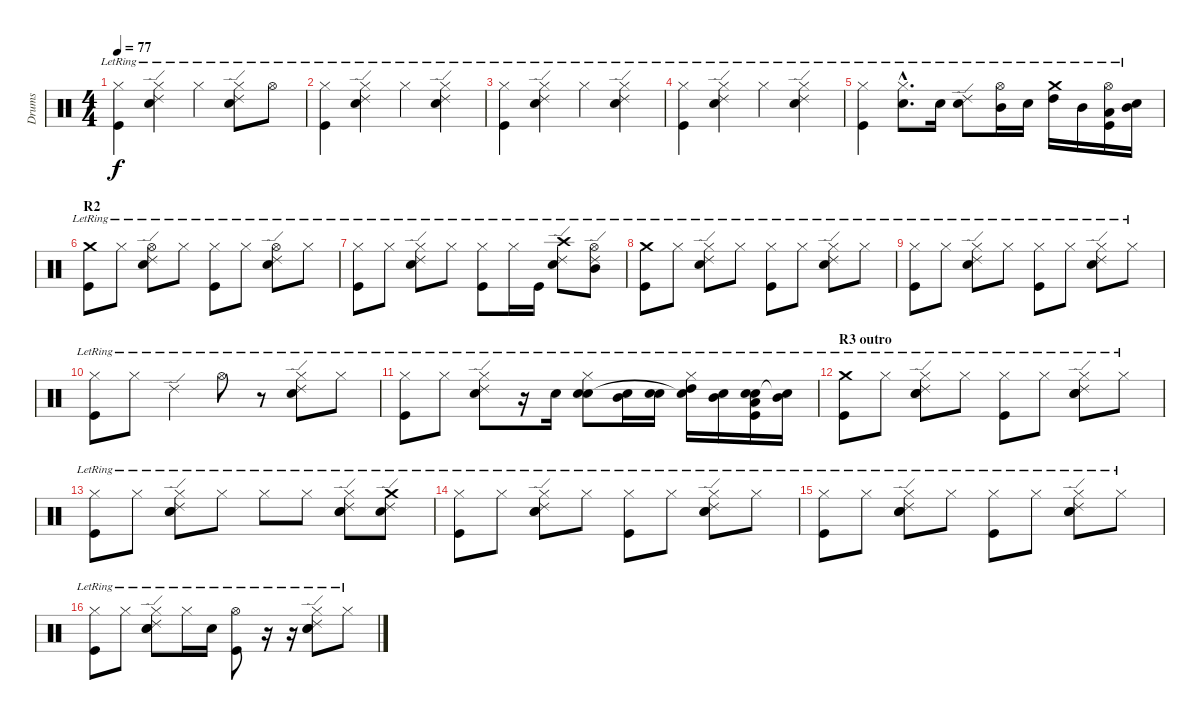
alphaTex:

\track ("Drums" "Drums") {instrument percussion}
\staff {score}
\articulation defaults
\ts (4 4)
\tempo 77
\clef neutral
\ks c
("Hi-Hat (closed)"{lr} "Kick (hit)"{lr}).4{dy f} ("Hi-Hat (closed)"{lr} "Snare (hit) 2"{lr} "Ride (edge) 2"{lr}).4 "Hi-Hat (closed)"{lr}.4 ("Hi-Hat (closed)"{lr} "Snare (hit) 2"{lr} "Ride (edge) 2"{lr}).8 "Hi-Hat (open)"{lr}.8 |
("Hi-Hat (closed)"{lr} "Kick (hit)"{lr}).4 ("Hi-Hat (closed)"{lr} "Snare (hit) 2"{lr} "Ride (edge) 2"{lr}).4 "Hi-Hat (closed)"{lr}.4 ("Hi-Hat (closed)"{lr} "Snare (hit) 2"{lr} "Ride (edge) 2"{lr}).4 |
("Hi-Hat (closed)"{lr} "Kick (hit)"{lr}).4 ("Hi-Hat (closed)"{lr} "Snare (hit) 2"{lr} "Ride (edge) 2"{lr}).4 "Hi-Hat (closed)"{lr}.4 ("Hi-Hat (closed)"{lr} "Snare (hit) 2"{lr} "Ride (edge) 2"{lr}).4 |
("Hi-Hat (closed)"{lr} "Kick (hit)"{lr}).4 ("Hi-Hat (closed)"{lr} "Snare (hit) 2"{lr} "Ride (edge) 2"{lr}).4 "Hi-Hat (closed)"{lr}.4 ("Hi-Hat (closed)"{lr} "Snare (hit) 2"{lr} "Ride (edge) 2"{lr}).4 |
("Hi-Hat (closed)"{lr} "Kick (hit)"{lr}).4 ("Hi-Hat (closed)"{hac lr} "Snare (hit) 2"{hac lr}).8{d} "Snare (hit) 2"{lr}.16 ("Ride (edge) 2"{lr} "Snare (hit) 2"{lr}).8 ("Hi-Hat (open)"{lr} "Mid Tom (hit)"{lr}).16 "Snare (hit) 2"{lr}.16 ("Crash medium (hit)"{lr} "High Tom (hit)"{lr}).16 "Mid Tom (hit)"{lr}.16 ("Hi-Hat (open)"{lr} "Low Tom (hit)"{lr} "Kick (hit)"{lr}).16 ("Snare (hit) 2"{lr} "Mid Tom (hit)"{lr}).16 |
\section ("" "R2")
("Crash medium (hit)"{lr} "Kick (hit)"{lr}).8 "Hi-Hat (closed)"{lr}.8 ("Hi-Hat (open)"{lr} "Snare (hit) 2"{lr} "Ride (edge) 2"{lr}).8 "Hi-Hat (closed)"{lr}.8 ("Hi-Hat (closed)"{lr} "Kick (hit)"{lr}).8 "Hi-Hat (closed)"{lr}.8 ("Hi-Hat (open)"{lr} "Snare (hit) 2"{lr} "Ride (edge) 2"{lr}).8 "Hi-Hat (closed)"{lr}.8 |
("Hi-Hat (closed)"{lr} "Kick (hit)"{lr}).8 "Hi-Hat (closed)"{lr}.8 ("Hi-Hat (closed)"{lr} "Snare (hit) 2"{lr} "Ride (edge) 2"{lr}).8 "Hi-Hat (closed)"{lr}.8 ("Hi-Hat (closed)"{lr} "Kick (hit)"{lr}).8 "Hi-Hat (closed)"{lr}.16 "Kick (hit)"{lr}.16 ("Crash high (hit)"{lr} "Snare (hit) 2"{lr} "Ride (edge) 2"{lr}).8 ("Hi-Hat (open)"{lr} "Mid Tom (hit)"{lr} "Ride (edge) 2"{lr}).8 |
("Crash medium (hit)"{lr} "Kick (hit)"{lr}).8 "Hi-Hat (closed)"{lr}.8 ("Hi-Hat (closed)"{lr} "Snare (hit) 2"{lr} "Ride (edge) 2"{lr}).8 "Hi-Hat (closed)"{lr}.8 ("Hi-Hat (closed)"{lr} "Kick (hit)"{lr}).8 "Hi-Hat (closed)"{lr}.8 ("Hi-Hat (closed)"{lr} "Snare (hit) 2"{lr} "Ride (edge) 2"{lr}).8 "Hi-Hat (closed)"{lr}.8 |
("Hi-Hat (closed)"{lr} "Kick (hit)"{lr}).8 "Hi-Hat (closed)"{lr}.8 ("Hi-Hat (closed)"{lr} "Snare (hit) 2"{lr} "Ride (edge) 2"{lr}).8 "Hi-Hat (closed)"{lr}.8 ("Hi-Hat (closed)"{lr} "Kick (hit)"{lr}).8 "Hi-Hat (closed)"{lr}.8 ("Hi-Hat (closed)"{lr} "Snare (hit) 2"{lr} "Ride (edge) 2"{lr}).8 "Hi-Hat (closed)"{lr}.8 |
("Hi-Hat (closed)"{lr} "Kick (hit)"{lr}).8 "Hi-Hat (closed)"{lr}.8 "Ride (edge) 2"{lr}.4 "Hi-Hat (open)"{lr}.8 r.8 ("Hi-Hat (closed)"{lr} "Snare (hit) 2"{lr} "Ride (edge) 2"{lr}).8 "Hi-Hat (closed)"{lr}.8 |
("Hi-Hat (closed)"{lr} "Kick (hit)"{lr}).8 "Hi-Hat (closed)"{lr}.8 ("Hi-Hat (closed)"{lr} "Snare (hit) 2"{lr} "Ride (edge) 2"{lr}).8 r.16 "Snare (hit) 2"{lr}.16 ("Hi-Hat (closed)"{lr} "Snare (hit) 2"{lr} "Electric Snare (hit)"{lr}).8 ("Mid Tom (hit)"{lr} "Snare (hit) 2"{lr}).16 ("Snare (hit) 2"{lr} "Electric Snare (hit)"{lr}).16 ("Hi-Hat (closed)"{lr} "High Tom (hit)"{lr} "Snare (hit)"{t}).16 ("Mid Tom (hit)"{lr} "Snare (hit) 2"{lr}).16 ("Low Tom (hit)"{lr} "Snare (hit) 2"{lr} "Electric Snare (hit)"{lr} "Kick (hit)"{lr}).16 ("Mid Tom (hit)"{lr} "Snare (hit)"{t}).16 |
\section ("" "R3 outro")
("Crash medium (hit)"{lr} "Kick (hit)"{lr}).8 "Hi-Hat (closed)"{lr}.8 ("Hi-Hat (closed)"{lr} "Snare (hit) 2"{lr} "Ride (edge) 2"{lr} "Electric Snare (hit)"{lr}).8 "Hi-Hat (closed)"{lr}.8 ("Hi-Hat (closed)"{lr} "Kick (hit)"{lr}).8 "Hi-Hat (closed)"{lr}.8 ("Hi-Hat (closed)"{lr} "Snare (hit) 2"{lr} "Ride (edge) 2"{lr} "Electric Snare (hit)"{lr}).8 "Hi-Hat (closed)"{lr}.8 |
("Hi-Hat (closed)"{lr} "Kick (hit)"{lr}).8 "Hi-Hat (closed)"{lr}.8 ("Hi-Hat (closed)"{lr} "Snare (hit) 2"{lr} "Ride (edge) 2"{lr} "Electric Snare (hit)"{lr}).8 "Hi-Hat (closed)"{lr}.8 "Hi-Hat (closed)"{lr}.8 "Hi-Hat (closed)"{lr}.8 ("Hi-Hat (closed)"{lr} "Snare (hit) 2"{lr} "Ride (edge) 2"{lr} "Electric Snare (hit)"{lr}).8 ("Crash medium (hit)"{lr} "Snare (hit) 2"{lr} "Ride (edge) 2"{lr}).8 |
("Hi-Hat (closed)"{lr} "Kick (hit)"{lr}).8 "Hi-Hat (closed)"{lr}.8 ("Hi-Hat (closed)"{lr} "Snare (hit) 2"{lr} "Ride (edge) 2"{lr} "Electric Snare (hit)"{lr}).8 "Hi-Hat (closed)"{lr}.8 ("Hi-Hat (closed)"{lr} "Kick (hit)"{lr}).8 "Hi-Hat (closed)"{lr}.8 ("Hi-Hat (closed)"{lr} "Snare (hit) 2"{lr} "Ride (edge) 2"{lr} "Electric Snare (hit)"{lr}).8 "Hi-Hat (closed)"{lr}.8 |
("Hi-Hat (closed)"{lr} "Kick (hit)"{lr}).8 "Hi-Hat (closed)"{lr}.8 ("Hi-Hat (closed)"{lr} "Snare (hit) 2"{lr} "Ride (edge) 2"{lr} "Electric Snare (hit)"{lr}).8 "Hi-Hat (closed)"{lr}.8 ("Hi-Hat (closed)"{lr} "Kick (hit)"{lr}).8 "Hi-Hat (closed)"{lr}.8 ("Hi-Hat (closed)"{lr} "Snare (hit) 2"{lr} "Ride (edge) 2"{lr} "Electric Snare (hit)"{lr}).8 "Hi-Hat (closed)"{lr}.8 |
("Hi-Hat (closed)"{lr} "Kick (hit)"{lr}).8 "Hi-Hat (closed)"{lr}.8 ("Hi-Hat (closed)"{lr} "Snare (hit) 2"{lr} "Ride (edge) 2"{lr} "Electric Snare (hit)"{lr}).8 "Hi-Hat (closed)"{lr}.16 "Snare (hit) 2"{lr}.16 ("Hi-Hat (open)"{lr} "Kick (hit)"{lr}).8 r.16 r.16 ("Hi-Hat (closed)"{lr} "Snare (hit) 2"{lr} "Ride (edge) 2"{lr} "Electric Snare (hit)"{lr}).8 "Hi-Hat (closed)"{lr}.8
